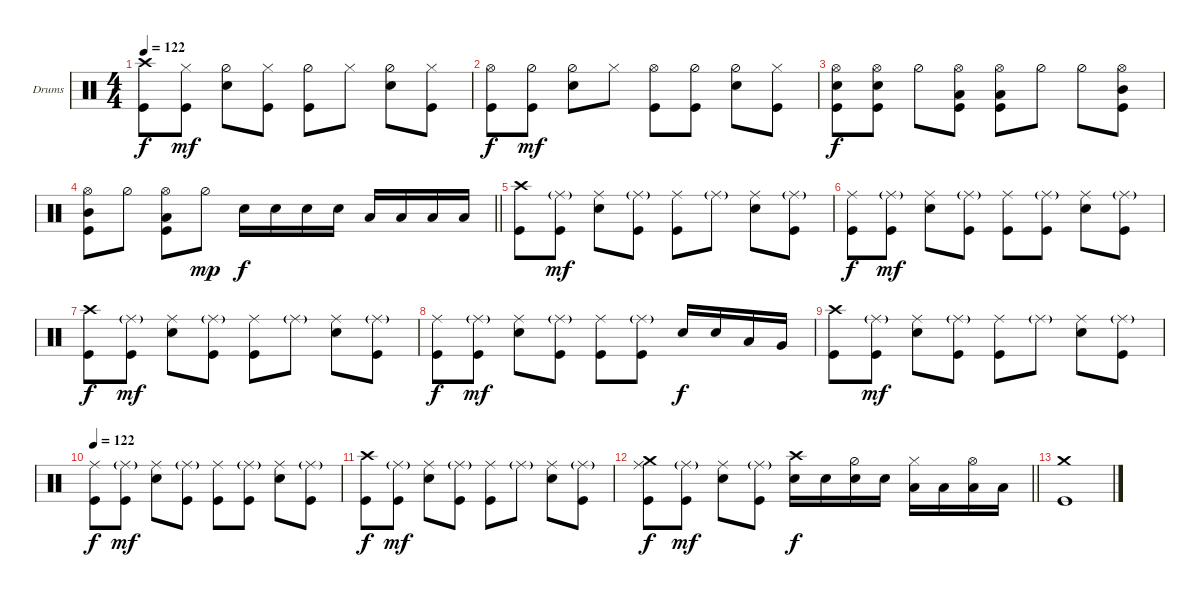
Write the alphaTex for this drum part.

\bracketExtendMode groupsimilarinstruments
\firstSystemTrackNameOrientation horizontal
\otherSystemsTrackNameOrientation horizontal
\track ("Batteria" "Drums") {instrument percussion}
\staff {score}
\articulation defaults
\ts (4 4)
\tempo 122
\clef neutral
\ks c
("Kick (hit)" "Crash high (hit)").8{dy f} ("Hi-Hat (closed)" "Kick (hit)").8{dy mf} ("Hi-Hat (half)" "Snare (hit) 2").8 ("Hi-Hat (closed)" "Kick (hit)").8 ("Hi-Hat (half)" "Kick (hit)").8 "Hi-Hat (closed)".8 ("Hi-Hat (half)" "Snare (hit) 2").8 ("Hi-Hat (closed)" "Kick (hit)").8 |
("Kick (hit)" "Hi-Hat (open)").8{dy f} ("Hi-Hat (half)" "Kick (hit)").8{dy mf} ("Hi-Hat (half)" "Snare (hit) 2").8 "Hi-Hat (closed)".8 ("Hi-Hat (open)" "Kick (hit)").8 ("Hi-Hat (half)" "Kick (hit)").8 ("Hi-Hat (half)" "Snare (hit) 2").8 ("Hi-Hat (closed)" "Kick (hit)").8 |
("Hi-Hat (open)" "Snare (hit) 2" "Kick (hit)").8{dy f} ("Hi-Hat (open)" "Snare (hit) 2" "Kick (hit)").8 "Hi-Hat (half)".8 ("Low Tom (hit)" "Hi-Hat (open)" "Kick (hit)").8 ("Low Tom (hit)" "Hi-Hat (open)" "Kick (hit)").8 "Hi-Hat (half)".8 "Hi-Hat (half)".8 ("Hi-Hat (open)" "Kick (hit)" "Mid Tom (hit)").8 |
\barLineRight lightlight
("Kick (hit)" "Mid Tom (hit)" "Hi-Hat (open)").8 "Hi-Hat (half)".8 ("Low Tom (hit)" "Hi-Hat (open)" "Kick (hit)").8 "Hi-Hat (half)".8{dy mp} "Snare (hit) 2".16{dy f} "Snare (hit) 2".16 "Snare (hit) 2".16 "Snare (hit) 2".16 "Low Tom (hit)".16 "Low Tom (hit)".16 "Low Tom (hit)".16 "Low Tom (hit)".16 |
("Kick (hit)" "Crash high (hit)").8 ("Kick (hit)" "Ride (middle)"{g}).8{dy mf} ("Snare (hit) 2" "Ride (middle)").8 ("Kick (hit)" "Ride (middle)"{g}).8 ("Kick (hit)" "Ride (middle)").8 "Ride (middle)"{g}.8 ("Snare (hit) 2" "Ride (middle)").8 ("Kick (hit)" "Ride (middle)"{g}).8 |
("Kick (hit)" "Ride (middle)").8{dy f} ("Kick (hit)" "Ride (middle)"{g}).8{dy mf} ("Snare (hit) 2" "Ride (middle)").8 ("Kick (hit)" "Ride (middle)"{g}).8 ("Kick (hit)" "Ride (middle)").8 ("Kick (hit)" "Ride (middle)"{g}).8 ("Snare (hit) 2" "Ride (middle)").8 ("Kick (hit)" "Ride (middle)"{g}).8 |
("Kick (hit)" "Crash high (hit)").8{dy f} ("Kick (hit)" "Ride (middle)"{g}).8{dy mf} ("Snare (hit) 2" "Ride (middle)").8 ("Kick (hit)" "Ride (middle)"{g}).8 ("Kick (hit)" "Ride (middle)").8 "Ride (middle)"{g}.8 ("Snare (hit) 2" "Ride (middle)").8 ("Kick (hit)" "Ride (middle)"{g}).8 |
("Kick (hit)" "Ride (middle)").8{dy f} ("Kick (hit)" "Ride (middle)"{g}).8{dy mf} ("Snare (hit) 2" "Ride (middle)").8 ("Kick (hit)" "Ride (middle)"{g}).8 ("Kick (hit)" "Ride (middle)").8 ("Kick (hit)" "Ride (middle)"{g}).8 "Snare (hit) 2".16{dy f} "Snare (hit) 2".16 "Low Tom (hit)".16 "Very Low Tom (hit)".16 |
("Kick (hit)" "Crash high (hit)").8 ("Kick (hit)" "Ride (middle)"{g}).8{dy mf} ("Snare (hit) 2" "Ride (middle)").8 ("Kick (hit)" "Ride (middle)"{g}).8 ("Kick (hit)" "Ride (middle)").8 "Ride (middle)"{g}.8 ("Snare (hit) 2" "Ride (middle)").8 ("Kick (hit)" "Ride (middle)"{g}).8 |
\tempo 122
("Kick (hit)" "Ride (middle)").8{dy f} ("Kick (hit)" "Ride (middle)"{g}).8{dy mf} ("Snare (hit) 2" "Ride (middle)").8 ("Kick (hit)" "Ride (middle)"{g}).8 ("Kick (hit)" "Ride (middle)").8 ("Kick (hit)" "Ride (middle)"{g}).8 ("Snare (hit) 2" "Ride (middle)").8 ("Kick (hit)" "Ride (middle)"{g}).8 |
("Kick (hit)" "Crash high (hit)").8{dy f} ("Kick (hit)" "Ride (middle)"{g}).8{dy mf} ("Snare (hit) 2" "Ride (middle)").8 ("Kick (hit)" "Ride (middle)"{g}).8 ("Kick (hit)" "Ride (middle)").8 "Ride (middle)"{g}.8 ("Snare (hit) 2" "Ride (middle)").8 ("Kick (hit)" "Ride (middle)"{g}).8 |
\barLineRight lightlight
("Kick (hit)" "Ride (middle)" "Crash medium (hit)").8{dy f} ("Kick (hit)" "Ride (middle)"{g}).8{dy mf} ("Snare (hit) 2" "Ride (middle)").8 ("Kick (hit)" "Ride (middle)"{g}).8 ("Snare (hit) 2" "Crash high (hit)").16{dy f} "Snare (hit) 2".16 ("Snare (hit) 2" "Hi-Hat (half)").16 "Snare (hit) 2".16 ("Low Tom (hit)" "Hi-Hat (closed)").16 "Low Tom (hit)".16 ("Low Tom (hit)" "Hi-Hat (open)").16 "Low Tom (hit)".16 |
("Crash medium (hit)" "Kick (hit)").1
